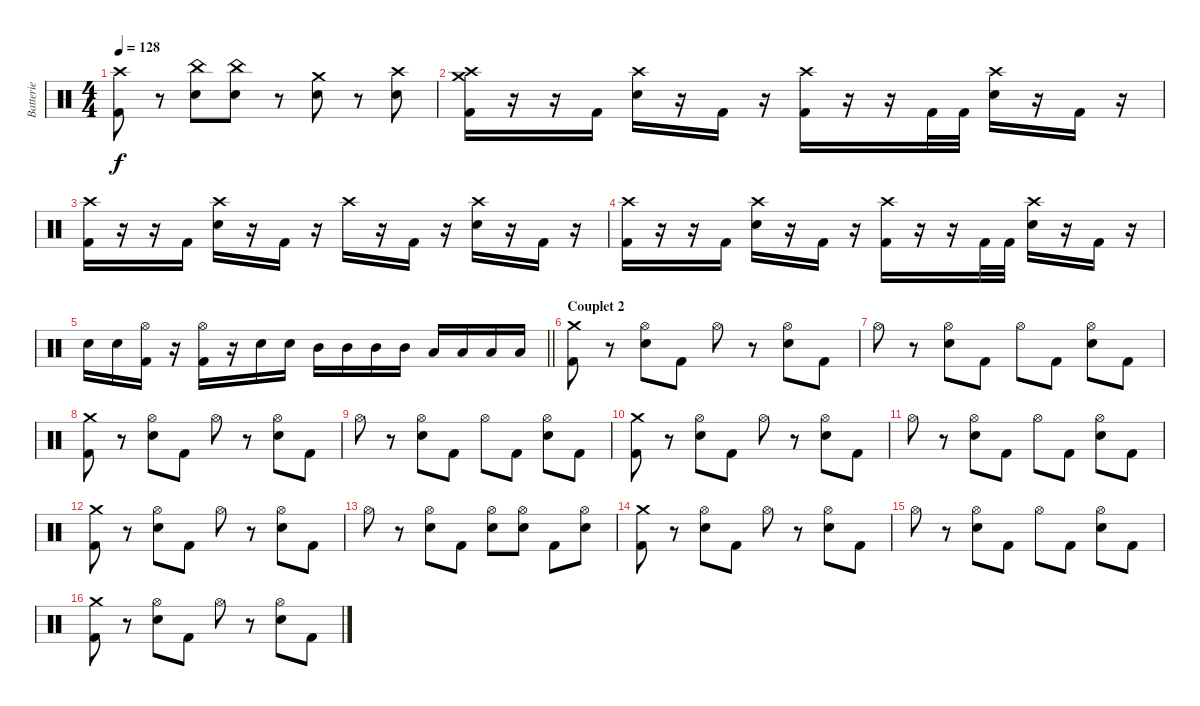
\track ("Batterie" "Batterie") {instrument percussion}
\staff {score}
\articulation defaults
\ts (4 4)
\tempo 128
\clef neutral
\ks c
("Kick (hit) 2" "Crash high (hit)").8{dy f} r.8 ("Electric Snare (hit)" "China (hit)").8 ("Electric Snare (hit)" "China (hit)").8 r.8 ("Electric Snare (hit)" "Crash medium (hit)").8 r.8 ("Electric Snare (hit)" "Crash high (hit)").8 |
("Kick (hit) 2" "Crash medium (hit)" "Crash high (hit)").16 r.16 r.16 "Kick (hit) 2".16 ("Electric Snare (hit)" "Crash high (hit)").16 r.16 "Kick (hit) 2".16 r.16 ("Kick (hit) 2" "Crash high (hit)").16 r.16 r.16 "Kick (hit) 2".32 "Kick (hit) 2".32 ("Electric Snare (hit)" "Crash high (hit)").16 r.16 "Kick (hit) 2".16 r.16 |
("Kick (hit) 2" "Crash high (hit)").16 r.16 r.16 "Kick (hit) 2".16 ("Electric Snare (hit)" "Crash high (hit)").16 r.16 "Kick (hit) 2".16 r.16 "Crash high (hit)".16 r.16 "Kick (hit) 2".16 r.16 ("Electric Snare (hit)" "Crash high (hit)").16 r.16 "Kick (hit) 2".16 r.16 |
("Kick (hit) 2" "Crash high (hit)").16 r.16 r.16 "Kick (hit) 2".16 ("Electric Snare (hit)" "Crash high (hit)").16 r.16 "Kick (hit) 2".16 r.16 ("Kick (hit) 2" "Crash high (hit)").16 r.16 r.16 "Kick (hit) 2".32 "Kick (hit) 2".32 ("Electric Snare (hit)" "Crash high (hit)").16 r.16 "Kick (hit) 2".16 r.16 |
\barLineRight lightlight "Electric Snare (hit)".16 "Electric Snare (hit)".16
("Kick (hit) 2" "Hi-Hat (open)").16 r.16 ("Kick (hit) 2" "Hi-Hat (open)").16 r.16 "Electric Snare (hit)".16 "Electric Snare (hit)".16 "Mid Tom (hit)".16 "Mid Tom (hit)".16 "Mid Tom (hit)".16 "Mid Tom (hit)".16 "Low Tom (hit)".16 "Low Tom (hit)".16 "Low Tom (hit)".16 "Low Tom (hit)".16 |
\section ("" "Couplet 2")
("Kick (hit) 2" "Crash medium (hit)").8 r.8 ("Electric Snare (hit)" "Hi-Hat (open)").8 "Kick (hit) 2".8 "Hi-Hat (open)".8 r.8 ("Electric Snare (hit)" "Hi-Hat (open)").8 "Kick (hit) 2".8 |
"Hi-Hat (open)".8 r.8 ("Electric Snare (hit)" "Hi-Hat (open)").8 "Kick (hit) 2".8 "Hi-Hat (open)".8 "Kick (hit) 2".8 ("Electric Snare (hit)" "Hi-Hat (open)").8 "Kick (hit) 2".8 |
("Kick (hit) 2" "Crash medium (hit)").8 r.8 ("Electric Snare (hit)" "Hi-Hat (open)").8 "Kick (hit) 2".8 "Hi-Hat (open)".8 r.8 ("Electric Snare (hit)" "Hi-Hat (open)").8 "Kick (hit) 2".8 |
"Hi-Hat (open)".8 r.8 ("Electric Snare (hit)" "Hi-Hat (open)").8 "Kick (hit) 2".8 "Hi-Hat (open)".8 "Kick (hit) 2".8 ("Electric Snare (hit)" "Hi-Hat (open)").8 "Kick (hit) 2".8 |
("Kick (hit) 2" "Crash medium (hit)").8 r.8 ("Electric Snare (hit)" "Hi-Hat (open)").8 "Kick (hit) 2".8 "Hi-Hat (open)".8 r.8 ("Electric Snare (hit)" "Hi-Hat (open)").8 "Kick (hit) 2".8 |
"Hi-Hat (open)".8 r.8 ("Electric Snare (hit)" "Hi-Hat (open)").8 "Kick (hit) 2".8 "Hi-Hat (open)".8 "Kick (hit) 2".8 ("Electric Snare (hit)" "Hi-Hat (open)").8 "Kick (hit) 2".8 |
("Kick (hit) 2" "Crash medium (hit)").8 r.8 ("Electric Snare (hit)" "Hi-Hat (open)").8 "Kick (hit) 2".8 "Hi-Hat (open)".8 r.8 ("Electric Snare (hit)" "Hi-Hat (open)").8 "Kick (hit) 2".8 |
"Hi-Hat (open)".8 r.8 ("Electric Snare (hit)" "Hi-Hat (open)").8 "Kick (hit) 2".8 ("Electric Snare (hit)" "Hi-Hat (open)").8 ("Electric Snare (hit)" "Hi-Hat (open)").8 "Kick (hit) 2".8 ("Electric Snare (hit)" "Hi-Hat (open)").8 |
("Kick (hit) 2" "Crash medium (hit)").8 r.8 ("Electric Snare (hit)" "Hi-Hat (open)").8 "Kick (hit) 2".8 "Hi-Hat (open)".8 r.8 ("Electric Snare (hit)" "Hi-Hat (open)").8 "Kick (hit) 2".8 |
"Hi-Hat (open)".8 r.8 ("Electric Snare (hit)" "Hi-Hat (open)").8 "Kick (hit) 2".8 "Hi-Hat (open)".8 "Kick (hit) 2".8 ("Electric Snare (hit)" "Hi-Hat (open)").8 "Kick (hit) 2".8 |
("Kick (hit) 2" "Crash medium (hit)").8 r.8 ("Electric Snare (hit)" "Hi-Hat (open)").8 "Kick (hit) 2".8 "Hi-Hat (open)".8 r.8 ("Electric Snare (hit)" "Hi-Hat (open)").8 "Kick (hit) 2".8
